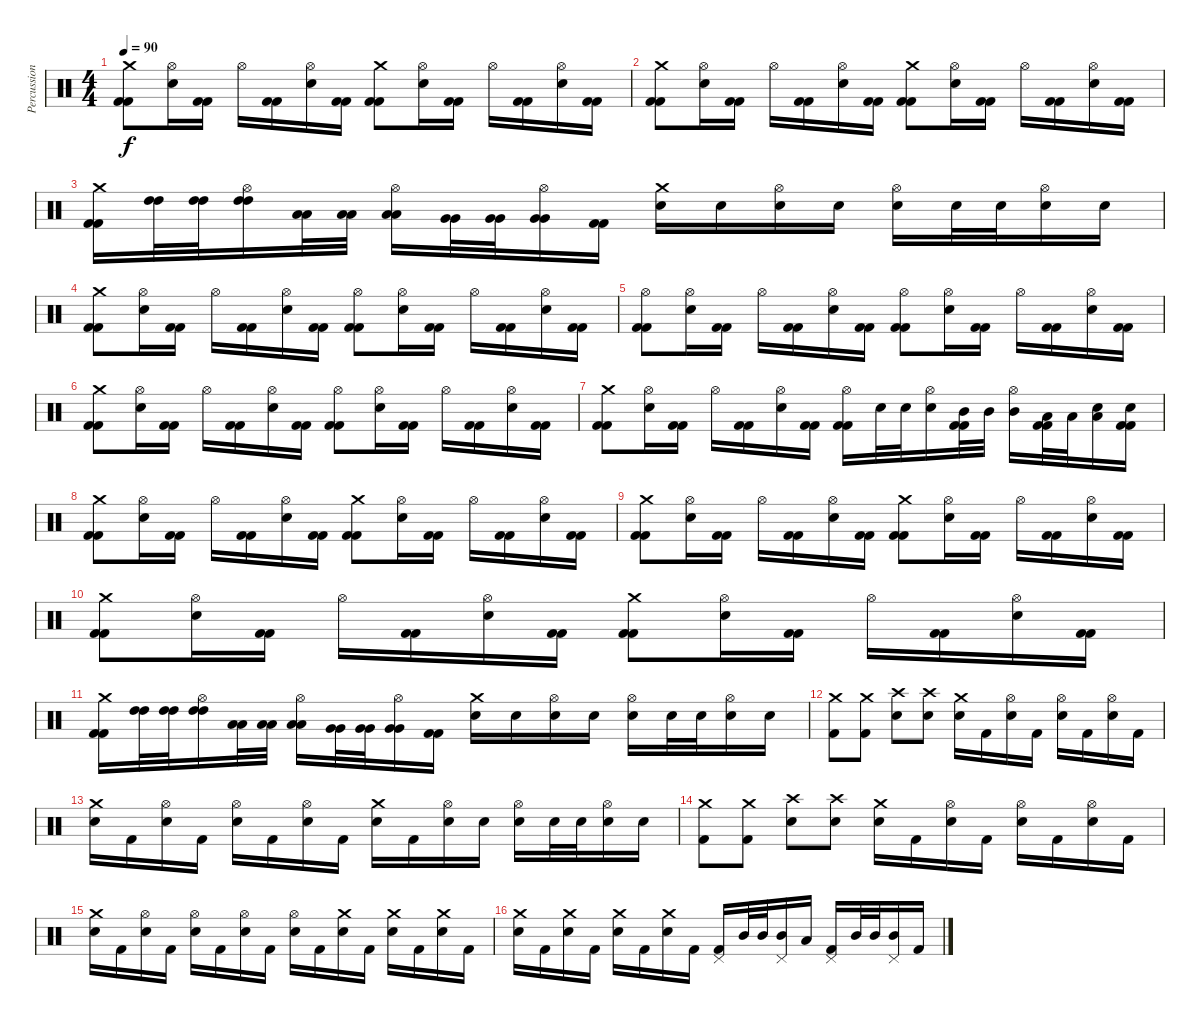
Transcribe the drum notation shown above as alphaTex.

\track ("Percussioni" "Percussion") {instrument percussion}
\staff {score}
\articulation defaults
\ts (4 4)
\tempo 90
\clef neutral
\ks c
("Crash medium (hit)" "Kick (hit) 2" "Kick (hit) 2").8{dy f} ("Hi-Hat (open)" "Electric Snare (hit)").16 ("Kick (hit) 2" "Kick (hit) 2").16 "Hi-Hat (open)".16 ("Kick (hit) 2" "Kick (hit) 2").16 ("Hi-Hat (open)" "Electric Snare (hit)").16 ("Kick (hit) 2" "Kick (hit) 2").16 ("Crash medium (hit)" "Kick (hit) 2" "Kick (hit) 2").8 ("Hi-Hat (open)" "Electric Snare (hit)").16 ("Kick (hit) 2" "Kick (hit) 2").16 "Hi-Hat (open)".16 ("Kick (hit) 2" "Kick (hit) 2").16 ("Hi-Hat (open)" "Electric Snare (hit)").16 ("Kick (hit) 2" "Kick (hit) 2").16 |
("Crash medium (hit)" "Kick (hit) 2" "Kick (hit) 2").8 ("Hi-Hat (open)" "Electric Snare (hit)").16 ("Kick (hit) 2" "Kick (hit) 2").16 "Hi-Hat (open)".16 ("Kick (hit) 2" "Kick (hit) 2").16 ("Hi-Hat (open)" "Electric Snare (hit)").16 ("Kick (hit) 2" "Kick (hit) 2").16 ("Crash medium (hit)" "Kick (hit) 2" "Kick (hit) 2").8 ("Hi-Hat (open)" "Electric Snare (hit)").16 ("Kick (hit) 2" "Kick (hit) 2").16 "Hi-Hat (open)".16 ("Kick (hit) 2" "Kick (hit) 2").16 ("Hi-Hat (open)" "Electric Snare (hit)").16 ("Kick (hit) 2" "Kick (hit) 2").16 |
("Crash medium (hit)" "Kick (hit) 2" "Kick (hit) 2").16 ("High Tom (hit)" "High Tom (hit)").32 ("High Tom (hit)" "High Tom (hit)").32 ("Hi-Hat (open)" "High Tom (hit)" "High Tom (hit)").16 ("Low Tom (hit)" "Low Tom (hit)").32 ("Low Tom (hit)" "Low Tom (hit)").32 ("Hi-Hat (open)" "Low Tom (hit)" "Low Tom (hit)").16 ("Very Low Tom (hit)" "Very Low Tom (hit)").32 ("Very Low Tom (hit)" "Very Low Tom (hit)").32 ("Hi-Hat (open)" "Very Low Tom (hit)" "Very Low Tom (hit)").16 ("Kick (hit) 2" "Kick (hit) 2").16 ("Crash medium (hit)" "Electric Snare (hit)").16 "Electric Snare (hit)".16 ("Hi-Hat (open)" "Electric Snare (hit)").16 "Electric Snare (hit)".16 ("Hi-Hat (open)" "Electric Snare (hit)").16 "Electric Snare (hit)".32 "Electric Snare (hit)".32 ("Hi-Hat (open)" "Electric Snare (hit)").16 "Electric Snare (hit)".16 |
("Crash medium (hit)" "Kick (hit) 2" "Kick (hit) 2").8 ("Hi-Hat (open)" "Electric Snare (hit)").16 ("Kick (hit) 2" "Kick (hit) 2").16 "Hi-Hat (open)".16 ("Kick (hit) 2" "Kick (hit) 2").16 ("Hi-Hat (open)" "Electric Snare (hit)").16 ("Kick (hit) 2" "Kick (hit) 2").16 ("Hi-Hat (open)" "Kick (hit) 2" "Kick (hit) 2").8 ("Hi-Hat (open)" "Electric Snare (hit)").16 ("Kick (hit) 2" "Kick (hit) 2").16 "Hi-Hat (open)".16 ("Kick (hit) 2" "Kick (hit) 2").16 ("Hi-Hat (open)" "Electric Snare (hit)").16 ("Kick (hit) 2" "Kick (hit) 2").16 |
("Hi-Hat (open)" "Kick (hit) 2" "Kick (hit) 2").8 ("Hi-Hat (open)" "Electric Snare (hit)").16 ("Kick (hit) 2" "Kick (hit) 2").16 "Hi-Hat (open)".16 ("Kick (hit) 2" "Kick (hit) 2").16 ("Hi-Hat (open)" "Electric Snare (hit)").16 ("Kick (hit) 2" "Kick (hit) 2").16 ("Hi-Hat (open)" "Kick (hit) 2" "Kick (hit) 2").8 ("Hi-Hat (open)" "Electric Snare (hit)").16 ("Kick (hit) 2" "Kick (hit) 2").16 "Hi-Hat (open)".16 ("Kick (hit) 2" "Kick (hit) 2").16 ("Hi-Hat (open)" "Electric Snare (hit)").16 ("Kick (hit) 2" "Kick (hit) 2").16 |
("Crash medium (hit)" "Kick (hit) 2" "Kick (hit) 2").8 ("Hi-Hat (open)" "Electric Snare (hit)").16 ("Kick (hit) 2" "Kick (hit) 2").16 "Hi-Hat (open)".16 ("Kick (hit) 2" "Kick (hit) 2").16 ("Hi-Hat (open)" "Electric Snare (hit)").16 ("Kick (hit) 2" "Kick (hit) 2").16 ("Hi-Hat (open)" "Kick (hit) 2" "Kick (hit) 2").8 ("Hi-Hat (open)" "Electric Snare (hit)").16 ("Kick (hit) 2" "Kick (hit) 2").16 "Hi-Hat (open)".16 ("Kick (hit) 2" "Kick (hit) 2").16 ("Hi-Hat (open)" "Electric Snare (hit)").16 ("Kick (hit) 2" "Kick (hit) 2").16 |
("Crash medium (hit)" "Kick (hit) 2" "Kick (hit) 2").8 ("Hi-Hat (open)" "Electric Snare (hit)").16 ("Kick (hit) 2" "Kick (hit) 2").16 "Hi-Hat (open)".16 ("Kick (hit) 2" "Kick (hit) 2").16 ("Hi-Hat (open)" "Electric Snare (hit)").16 ("Kick (hit) 2" "Kick (hit) 2").16 ("Hi-Hat (open)" "Kick (hit) 2" "Kick (hit) 2").16 "Electric Snare (hit)".32 "Electric Snare (hit)".32 ("Hi-Hat (open)" "Electric Snare (hit)").16 ("Mid Tom (hit)" "Kick (hit) 2" "Kick (hit) 2").32 "Mid Tom (hit)".32 ("Hi-Hat (open)" "Mid Tom (hit)").16 ("Low Tom (hit)" "Kick (hit) 2" "Kick (hit) 2").32 "Low Tom (hit)".32 ("Low Tom (hit)" "Electric Snare (hit)").16 ("Electric Snare (hit)" "Kick (hit) 2" "Kick (hit) 2").16 |
("Crash medium (hit)" "Kick (hit) 2" "Kick (hit) 2").8 ("Hi-Hat (open)" "Electric Snare (hit)").16 ("Kick (hit) 2" "Kick (hit) 2").16 "Hi-Hat (open)".16 ("Kick (hit) 2" "Kick (hit) 2").16 ("Hi-Hat (open)" "Electric Snare (hit)").16 ("Kick (hit) 2" "Kick (hit) 2").16 ("Crash medium (hit)" "Kick (hit) 2" "Kick (hit) 2").8 ("Hi-Hat (open)" "Electric Snare (hit)").16 ("Kick (hit) 2" "Kick (hit) 2").16 "Hi-Hat (open)".16 ("Kick (hit) 2" "Kick (hit) 2").16 ("Hi-Hat (open)" "Electric Snare (hit)").16 ("Kick (hit) 2" "Kick (hit) 2").16 |
("Crash medium (hit)" "Kick (hit) 2" "Kick (hit) 2").8 ("Hi-Hat (open)" "Electric Snare (hit)").16 ("Kick (hit) 2" "Kick (hit) 2").16 "Hi-Hat (open)".16 ("Kick (hit) 2" "Kick (hit) 2").16 ("Hi-Hat (open)" "Electric Snare (hit)").16 ("Kick (hit) 2" "Kick (hit) 2").16 ("Crash medium (hit)" "Kick (hit) 2" "Kick (hit) 2").8 ("Hi-Hat (open)" "Electric Snare (hit)").16 ("Kick (hit) 2" "Kick (hit) 2").16 "Hi-Hat (open)".16 ("Kick (hit) 2" "Kick (hit) 2").16 ("Hi-Hat (open)" "Electric Snare (hit)").16 ("Kick (hit) 2" "Kick (hit) 2").16 |
("Crash medium (hit)" "Kick (hit) 2" "Kick (hit) 2").8 ("Hi-Hat (open)" "Electric Snare (hit)").16 ("Kick (hit) 2" "Kick (hit) 2").16 "Hi-Hat (open)".16 ("Kick (hit) 2" "Kick (hit) 2").16 ("Hi-Hat (open)" "Electric Snare (hit)").16 ("Kick (hit) 2" "Kick (hit) 2").16 ("Crash medium (hit)" "Kick (hit) 2" "Kick (hit) 2").8 ("Hi-Hat (open)" "Electric Snare (hit)").16 ("Kick (hit) 2" "Kick (hit) 2").16 "Hi-Hat (open)".16 ("Kick (hit) 2" "Kick (hit) 2").16 ("Hi-Hat (open)" "Electric Snare (hit)").16 ("Kick (hit) 2" "Kick (hit) 2").16 |
("Crash medium (hit)" "Kick (hit) 2" "Kick (hit) 2").16 ("High Tom (hit)" "High Tom (hit)").32 ("High Tom (hit)" "High Tom (hit)").32 ("Hi-Hat (open)" "High Tom (hit)" "High Tom (hit)").16 ("Low Tom (hit)" "Low Tom (hit)").32 ("Low Tom (hit)" "Low Tom (hit)").32 ("Hi-Hat (open)" "Low Tom (hit)" "Low Tom (hit)").16 ("Very Low Tom (hit)" "Very Low Tom (hit)").32 ("Very Low Tom (hit)" "Very Low Tom (hit)").32 ("Hi-Hat (open)" "Very Low Tom (hit)" "Very Low Tom (hit)").16 ("Kick (hit) 2" "Kick (hit) 2").16 ("Crash medium (hit)" "Electric Snare (hit)").16 "Electric Snare (hit)".16 ("Hi-Hat (open)" "Electric Snare (hit)").16 "Electric Snare (hit)".16 ("Hi-Hat (open)" "Electric Snare (hit)").16 "Electric Snare (hit)".32 "Electric Snare (hit)".32 ("Hi-Hat (open)" "Electric Snare (hit)").16 "Electric Snare (hit)".16 |
("Crash medium (hit)" "Kick (hit) 2").8 ("Crash medium (hit)" "Kick (hit) 2").8 ("Crash high (hit)" "Electric Snare (hit)").8 ("Crash high (hit)" "Electric Snare (hit)").8 ("Crash medium (hit)" "Electric Snare (hit)").16 "Kick (hit) 2".16 ("Hi-Hat (open)" "Electric Snare (hit)").16 "Kick (hit) 2".16 ("Hi-Hat (open)" "Electric Snare (hit)").16 "Kick (hit) 2".16 ("Hi-Hat (open)" "Electric Snare (hit)").16 "Kick (hit) 2".16 |
("Crash medium (hit)" "Electric Snare (hit)").16 "Kick (hit) 2".16 ("Hi-Hat (open)" "Electric Snare (hit)").16 "Kick (hit) 2".16 ("Hi-Hat (open)" "Electric Snare (hit)").16 "Kick (hit) 2".16 ("Hi-Hat (open)" "Electric Snare (hit)").16 "Kick (hit) 2".16 ("Crash medium (hit)" "Electric Snare (hit)").16 "Kick (hit) 2".16 ("Hi-Hat (open)" "Electric Snare (hit)").16 "Electric Snare (hit)".16 ("Hi-Hat (open)" "Electric Snare (hit)").16 "Electric Snare (hit)".32 "Electric Snare (hit)".32 ("Hi-Hat (open)" "Electric Snare (hit)").16 "Electric Snare (hit)".16 |
("Crash medium (hit)" "Kick (hit) 2").8 ("Crash medium (hit)" "Kick (hit) 2").8 ("Crash high (hit)" "Electric Snare (hit)").8 ("Crash high (hit)" "Electric Snare (hit)").8 ("Crash medium (hit)" "Electric Snare (hit)").16 "Kick (hit) 2".16 ("Hi-Hat (open)" "Electric Snare (hit)").16 "Kick (hit) 2".16 ("Hi-Hat (open)" "Electric Snare (hit)").16 "Kick (hit) 2".16 ("Hi-Hat (open)" "Electric Snare (hit)").16 "Kick (hit) 2".16 |
("Crash medium (hit)" "Electric Snare (hit)").16 "Kick (hit) 2".16 ("Hi-Hat (open)" "Electric Snare (hit)").16 "Kick (hit) 2".16 ("Hi-Hat (open)" "Electric Snare (hit)").16 "Kick (hit) 2".16 ("Hi-Hat (open)" "Electric Snare (hit)").16 "Kick (hit) 2".16 ("Hi-Hat (open)" "Electric Snare (hit)").16 "Kick (hit) 2".16 ("Crash medium (hit)" "Electric Snare (hit)").16 "Kick (hit) 2".16 ("Crash medium (hit)" "Electric Snare (hit)").16 "Kick (hit) 2".16 ("Crash medium (hit)" "Electric Snare (hit)").16 "Kick (hit) 2".16 |
("Crash medium (hit)" "Electric Snare (hit)").16 "Kick (hit) 2".16 ("Crash medium (hit)" "Electric Snare (hit)").16 "Kick (hit) 2".16 ("Crash medium (hit)" "Electric Snare (hit)").16 "Kick (hit) 2".16 ("Crash medium (hit)" "Electric Snare (hit)").16 "Kick (hit) 2".16 ("Pedal Hi-Hat (hit)" "Kick (hit) 2").16 "Mid Tom (hit)".32 "Mid Tom (hit)".32 ("Pedal Hi-Hat (hit)" "Mid Tom (hit)").16 "Low Tom (hit)".16 ("Pedal Hi-Hat (hit)" "Kick (hit) 2").16 "Mid Tom (hit)".32 "Mid Tom (hit)".32 ("Pedal Hi-Hat (hit)" "Mid Tom (hit)").16 "Kick (hit) 2".16
